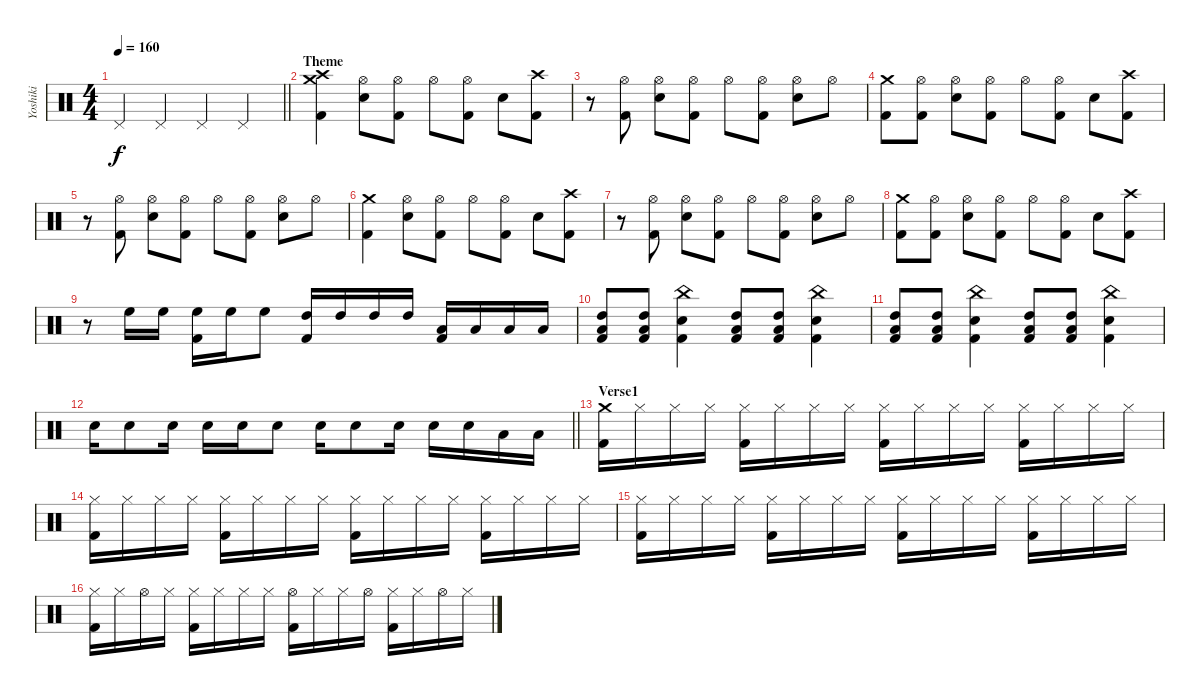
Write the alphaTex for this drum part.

\track ("Yoshiki" "Yoshiki") {instrument percussion}
\staff {score}
\articulation defaults
\ts (4 4)
\tempo 160
\clef neutral
\barLineRight lightlight
\ks c "Pedal Hi-Hat (hit)".4{dy f} "Pedal Hi-Hat (hit)".4 "Pedal Hi-Hat (hit)".4 "Pedal Hi-Hat (hit)".4
|
\section ("" "Theme")
("Crash medium (hit)" "Crash high (hit)" "Kick (hit) 2").4 ("Hi-Hat (open)" "Snare (hit) 2").8 ("Hi-Hat (open)" "Kick (hit) 2").8 "Hi-Hat (open)".8 ("Hi-Hat (open)" "Kick (hit) 2").8 "Snare (hit) 2".8 ("Crash high (hit)" "Kick (hit) 2").8 |
r.8 ("Hi-Hat (open)" "Kick (hit) 2").8 ("Hi-Hat (open)" "Snare (hit) 2").8 ("Hi-Hat (open)" "Kick (hit) 2").8 "Hi-Hat (open)".8 ("Hi-Hat (open)" "Kick (hit) 2").8 ("Hi-Hat (open)" "Snare (hit) 2").8 "Hi-Hat (open)".8 |
("Crash medium (hit)" "Kick (hit) 2").8 ("Hi-Hat (open)" "Kick (hit) 2").8 ("Hi-Hat (open)" "Snare (hit) 2").8 ("Hi-Hat (open)" "Kick (hit) 2").8 "Hi-Hat (open)".8 ("Hi-Hat (open)" "Kick (hit) 2").8 "Snare (hit) 2".8 ("Crash high (hit)" "Kick (hit) 2").8 |
r.8 ("Hi-Hat (open)" "Kick (hit) 2").8 ("Hi-Hat (open)" "Snare (hit) 2").8 ("Hi-Hat (open)" "Kick (hit) 2").8 "Hi-Hat (open)".8 ("Hi-Hat (open)" "Kick (hit) 2").8 ("Hi-Hat (open)" "Snare (hit) 2").8 "Hi-Hat (open)".8 |
("Crash medium (hit)" "Kick (hit) 2").4 ("Hi-Hat (open)" "Snare (hit) 2").8 ("Hi-Hat (open)" "Kick (hit) 2").8 "Hi-Hat (open)".8 ("Hi-Hat (open)" "Kick (hit) 2").8 "Snare (hit) 2".8 ("Crash high (hit)" "Kick (hit) 2").8 |
r.8 ("Hi-Hat (open)" "Kick (hit) 2").8 ("Hi-Hat (open)" "Snare (hit) 2").8 ("Hi-Hat (open)" "Kick (hit) 2").8 "Hi-Hat (open)".8 ("Hi-Hat (open)" "Kick (hit) 2").8 ("Hi-Hat (open)" "Snare (hit) 2").8 "Hi-Hat (open)".8 |
("Crash medium (hit)" "Kick (hit) 2").8 ("Hi-Hat (open)" "Kick (hit) 2").8 ("Hi-Hat (open)" "Snare (hit) 2").8 ("Hi-Hat (open)" "Kick (hit) 2").8 "Hi-Hat (open)".8 ("Hi-Hat (open)" "Kick (hit) 2").8 "Snare (hit) 2".8 ("Crash high (hit)" "Kick (hit) 2").8 |
r.8 "High Floor Tom (hit)".16 "High Floor Tom (hit)".16 ("High Floor Tom (hit)" "Kick (hit) 2").16 "High Floor Tom (hit)".16 "High Floor Tom (hit)".8 ("High Tom (hit)" "Kick (hit) 2").16 "High Tom (hit)".16 "High Tom (hit)".16 "High Tom (hit)".16 ("Low Tom (hit)" "Kick (hit) 2").16 "Low Tom (hit)".16 "Low Tom (hit)".16 "Low Tom (hit)".16 |
("High Tom (hit)" "Low Tom (hit)" "Kick (hit) 2").8 ("High Tom (hit)" "Low Tom (hit)" "Kick (hit) 2").8 ("China (hit)" "Snare (hit) 2" "Kick (hit) 2").4 ("High Tom (hit)" "Low Tom (hit)" "Kick (hit) 2").8 ("High Tom (hit)" "Low Tom (hit)" "Kick (hit) 2").8 ("China (hit)" "Snare (hit) 2" "Kick (hit) 2").4 |
("High Tom (hit)" "Low Tom (hit)" "Kick (hit) 2").8 ("High Tom (hit)" "Low Tom (hit)" "Kick (hit) 2").8 ("China (hit)" "Snare (hit) 2" "Kick (hit) 2").4 ("High Tom (hit)" "Low Tom (hit)" "Kick (hit) 2").8 ("High Tom (hit)" "Low Tom (hit)" "Kick (hit) 2").8 ("China (hit)" "Snare (hit) 2" "Kick (hit) 2").4 |
\barLineRight lightlight "Snare (hit) 2".16 "Snare (hit) 2".8 "Snare (hit) 2".16 "Snare (hit) 2".16 "Snare (hit) 2".16 "Snare (hit) 2".8 "Snare (hit) 2".16 "Snare (hit) 2".8 "Snare (hit) 2".16 "Snare (hit) 2".16 "Snare (hit) 2".16 "Low Tom (hit)".16 "Low Tom (hit)".16
|
\section ("" "Verse1")
("Crash medium (hit)" "Kick (hit) 2").16 "Hi-Hat (closed)".16 "Hi-Hat (closed)".16 "Hi-Hat (closed)".16 ("Hi-Hat (closed)" "Kick (hit) 2").16 "Hi-Hat (closed)".16 "Hi-Hat (closed)".16 "Hi-Hat (closed)".16 ("Hi-Hat (closed)" "Kick (hit) 2").16 "Hi-Hat (closed)".16 "Hi-Hat (closed)".16 "Hi-Hat (closed)".16 ("Hi-Hat (closed)" "Kick (hit) 2").16 "Hi-Hat (closed)".16 "Hi-Hat (closed)".16 "Hi-Hat (closed)".16 |
("Hi-Hat (closed)" "Kick (hit) 2").16 "Hi-Hat (closed)".16 "Hi-Hat (closed)".16 "Hi-Hat (closed)".16 ("Hi-Hat (closed)" "Kick (hit) 2").16 "Hi-Hat (closed)".16 "Hi-Hat (closed)".16 "Hi-Hat (closed)".16 ("Hi-Hat (closed)" "Kick (hit) 2").16 "Hi-Hat (closed)".16 "Hi-Hat (closed)".16 "Hi-Hat (closed)".16 ("Hi-Hat (closed)" "Kick (hit) 2").16 "Hi-Hat (closed)".16 "Hi-Hat (closed)".16 "Hi-Hat (closed)".16 |
("Hi-Hat (closed)" "Kick (hit) 2").16 "Hi-Hat (closed)".16 "Hi-Hat (closed)".16 "Hi-Hat (closed)".16 ("Hi-Hat (closed)" "Kick (hit) 2").16 "Hi-Hat (closed)".16 "Hi-Hat (closed)".16 "Hi-Hat (closed)".16 ("Hi-Hat (closed)" "Kick (hit) 2").16 "Hi-Hat (closed)".16 "Hi-Hat (closed)".16 "Hi-Hat (closed)".16 ("Hi-Hat (closed)" "Kick (hit) 2").16 "Hi-Hat (closed)".16 "Hi-Hat (closed)".16 "Hi-Hat (closed)".16 |
("Hi-Hat (closed)" "Kick (hit) 2").16 "Hi-Hat (closed)".16 "Hi-Hat (open)".16 "Hi-Hat (closed)".16 ("Hi-Hat (closed)" "Kick (hit) 2").16 "Hi-Hat (closed)".16 "Hi-Hat (closed)".16 "Hi-Hat (closed)".16 ("Hi-Hat (open)" "Kick (hit) 2").16 "Hi-Hat (closed)".16 "Hi-Hat (closed)".16 "Hi-Hat (open)".16 ("Hi-Hat (closed)" "Kick (hit) 2").16 "Hi-Hat (closed)".16 "Hi-Hat (open)".16 "Hi-Hat (closed)".16
